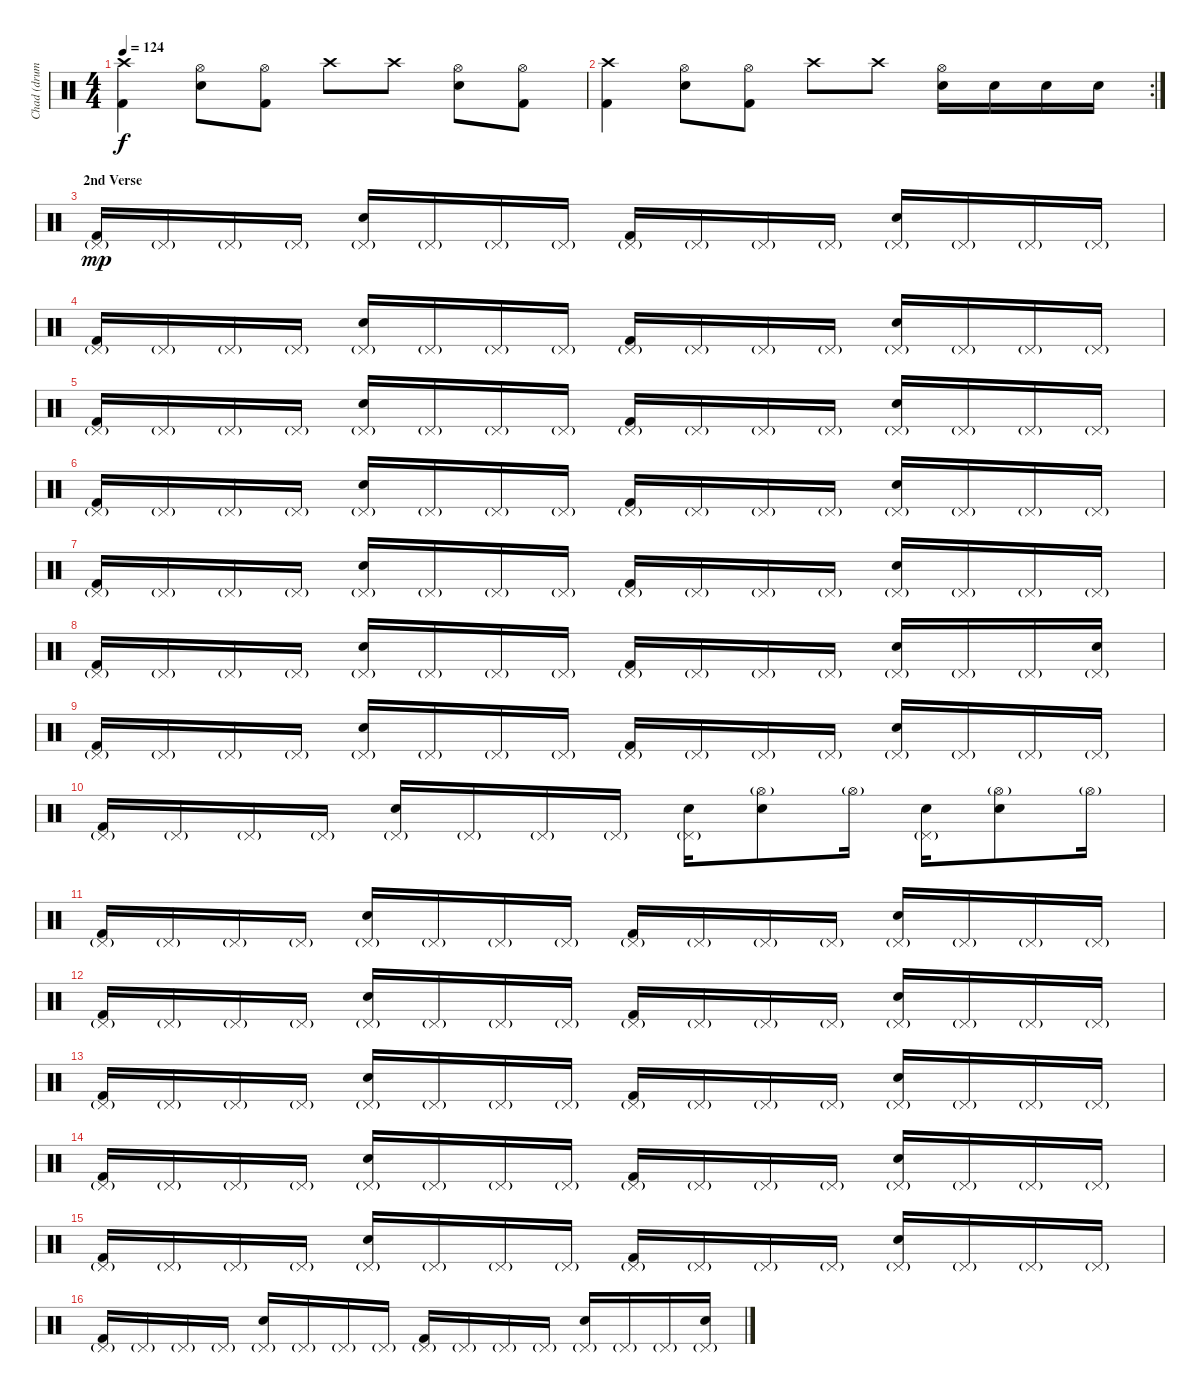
\track ("Chad (drums)" "Chad (drum") {instrument percussion}
\staff {score}
\articulation defaults
\ts (4 4)
\tempo 124
\clef neutral
\ks c
("Kick (hit) 2" "Crash high (hit)").4{dy f} ("Electric Snare (hit)" "Hi-Hat (open)").8 ("Kick (hit) 2" "Hi-Hat (open)").8 "Crash high (hit)".8 "Crash high (hit)".8 ("Electric Snare (hit)" "Hi-Hat (open)").8 ("Kick (hit) 2" "Hi-Hat (open)").8 |
\rc 2
("Kick (hit) 2" "Crash high (hit)").4 ("Electric Snare (hit)" "Hi-Hat (open)").8 ("Kick (hit) 2" "Hi-Hat (open)").8 "Crash high (hit)".8 "Crash high (hit)".8 ("Electric Snare (hit)" "Hi-Hat (open)").16 "Electric Snare (hit)".16 "Electric Snare (hit)".16 "Electric Snare (hit)".16 |
\section ("" "2nd Verse")
("Kick (hit) 2" "Pedal Hi-Hat (hit)"{g}).16{dy mp} "Pedal Hi-Hat (hit)"{g}.16 "Pedal Hi-Hat (hit)"{g}.16 "Pedal Hi-Hat (hit)"{g}.16 ("Electric Snare (hit)" "Pedal Hi-Hat (hit)"{g}).16 "Pedal Hi-Hat (hit)"{g}.16 "Pedal Hi-Hat (hit)"{g}.16 "Pedal Hi-Hat (hit)"{g}.16 ("Kick (hit) 2" "Pedal Hi-Hat (hit)"{g}).16 "Pedal Hi-Hat (hit)"{g}.16 "Pedal Hi-Hat (hit)"{g}.16 "Pedal Hi-Hat (hit)"{g}.16 ("Electric Snare (hit)" "Pedal Hi-Hat (hit)"{g}).16 "Pedal Hi-Hat (hit)"{g}.16 "Pedal Hi-Hat (hit)"{g}.16 "Pedal Hi-Hat (hit)"{g}.16 |
("Kick (hit) 2" "Pedal Hi-Hat (hit)"{g}).16 "Pedal Hi-Hat (hit)"{g}.16 "Pedal Hi-Hat (hit)"{g}.16 "Pedal Hi-Hat (hit)"{g}.16 ("Electric Snare (hit)" "Pedal Hi-Hat (hit)"{g}).16 "Pedal Hi-Hat (hit)"{g}.16 "Pedal Hi-Hat (hit)"{g}.16 "Pedal Hi-Hat (hit)"{g}.16 ("Kick (hit) 2" "Pedal Hi-Hat (hit)"{g}).16 "Pedal Hi-Hat (hit)"{g}.16 "Pedal Hi-Hat (hit)"{g}.16 "Pedal Hi-Hat (hit)"{g}.16 ("Electric Snare (hit)" "Pedal Hi-Hat (hit)"{g}).16 "Pedal Hi-Hat (hit)"{g}.16 "Pedal Hi-Hat (hit)"{g}.16 "Pedal Hi-Hat (hit)"{g}.16 |
("Kick (hit) 2" "Pedal Hi-Hat (hit)"{g}).16 "Pedal Hi-Hat (hit)"{g}.16 "Pedal Hi-Hat (hit)"{g}.16 "Pedal Hi-Hat (hit)"{g}.16 ("Electric Snare (hit)" "Pedal Hi-Hat (hit)"{g}).16 "Pedal Hi-Hat (hit)"{g}.16 "Pedal Hi-Hat (hit)"{g}.16 "Pedal Hi-Hat (hit)"{g}.16 ("Kick (hit) 2" "Pedal Hi-Hat (hit)"{g}).16 "Pedal Hi-Hat (hit)"{g}.16 "Pedal Hi-Hat (hit)"{g}.16 "Pedal Hi-Hat (hit)"{g}.16 ("Electric Snare (hit)" "Pedal Hi-Hat (hit)"{g}).16 "Pedal Hi-Hat (hit)"{g}.16 "Pedal Hi-Hat (hit)"{g}.16 "Pedal Hi-Hat (hit)"{g}.16 |
("Kick (hit) 2" "Pedal Hi-Hat (hit)"{g}).16 "Pedal Hi-Hat (hit)"{g}.16 "Pedal Hi-Hat (hit)"{g}.16 "Pedal Hi-Hat (hit)"{g}.16 ("Electric Snare (hit)" "Pedal Hi-Hat (hit)"{g}).16 "Pedal Hi-Hat (hit)"{g}.16 "Pedal Hi-Hat (hit)"{g}.16 "Pedal Hi-Hat (hit)"{g}.16 ("Kick (hit) 2" "Pedal Hi-Hat (hit)"{g}).16 "Pedal Hi-Hat (hit)"{g}.16 "Pedal Hi-Hat (hit)"{g}.16 "Pedal Hi-Hat (hit)"{g}.16 ("Electric Snare (hit)" "Pedal Hi-Hat (hit)"{g}).16 "Pedal Hi-Hat (hit)"{g}.16 "Pedal Hi-Hat (hit)"{g}.16 "Pedal Hi-Hat (hit)"{g}.16 |
("Kick (hit) 2" "Pedal Hi-Hat (hit)"{g}).16 "Pedal Hi-Hat (hit)"{g}.16 "Pedal Hi-Hat (hit)"{g}.16 "Pedal Hi-Hat (hit)"{g}.16 ("Electric Snare (hit)" "Pedal Hi-Hat (hit)"{g}).16 "Pedal Hi-Hat (hit)"{g}.16 "Pedal Hi-Hat (hit)"{g}.16 "Pedal Hi-Hat (hit)"{g}.16 ("Kick (hit) 2" "Pedal Hi-Hat (hit)"{g}).16 "Pedal Hi-Hat (hit)"{g}.16 "Pedal Hi-Hat (hit)"{g}.16 "Pedal Hi-Hat (hit)"{g}.16 ("Electric Snare (hit)" "Pedal Hi-Hat (hit)"{g}).16 "Pedal Hi-Hat (hit)"{g}.16 "Pedal Hi-Hat (hit)"{g}.16 "Pedal Hi-Hat (hit)"{g}.16 |
("Kick (hit) 2" "Pedal Hi-Hat (hit)"{g}).16 "Pedal Hi-Hat (hit)"{g}.16 "Pedal Hi-Hat (hit)"{g}.16 "Pedal Hi-Hat (hit)"{g}.16 ("Electric Snare (hit)" "Pedal Hi-Hat (hit)"{g}).16 "Pedal Hi-Hat (hit)"{g}.16 "Pedal Hi-Hat (hit)"{g}.16 "Pedal Hi-Hat (hit)"{g}.16 ("Kick (hit) 2" "Pedal Hi-Hat (hit)"{g}).16 "Pedal Hi-Hat (hit)"{g}.16 "Pedal Hi-Hat (hit)"{g}.16 "Pedal Hi-Hat (hit)"{g}.16 ("Electric Snare (hit)" "Pedal Hi-Hat (hit)"{g}).16 "Pedal Hi-Hat (hit)"{g}.16 "Pedal Hi-Hat (hit)"{g}.16 ("Electric Snare (hit)" "Pedal Hi-Hat (hit)"{g}).16 |
("Kick (hit) 2" "Pedal Hi-Hat (hit)"{g}).16 "Pedal Hi-Hat (hit)"{g}.16 "Pedal Hi-Hat (hit)"{g}.16 "Pedal Hi-Hat (hit)"{g}.16 ("Electric Snare (hit)" "Pedal Hi-Hat (hit)"{g}).16 "Pedal Hi-Hat (hit)"{g}.16 "Pedal Hi-Hat (hit)"{g}.16 "Pedal Hi-Hat (hit)"{g}.16 ("Kick (hit) 2" "Pedal Hi-Hat (hit)"{g}).16 "Pedal Hi-Hat (hit)"{g}.16 "Pedal Hi-Hat (hit)"{g}.16 "Pedal Hi-Hat (hit)"{g}.16 ("Electric Snare (hit)" "Pedal Hi-Hat (hit)"{g}).16 "Pedal Hi-Hat (hit)"{g}.16 "Pedal Hi-Hat (hit)"{g}.16 "Pedal Hi-Hat (hit)"{g}.16 |
("Kick (hit) 2" "Pedal Hi-Hat (hit)"{g}).16 "Pedal Hi-Hat (hit)"{g}.16 "Pedal Hi-Hat (hit)"{g}.16 "Pedal Hi-Hat (hit)"{g}.16 ("Electric Snare (hit)" "Pedal Hi-Hat (hit)"{g}).16 "Pedal Hi-Hat (hit)"{g}.16 "Pedal Hi-Hat (hit)"{g}.16 "Pedal Hi-Hat (hit)"{g}.16 ("Electric Snare (hit)" "Pedal Hi-Hat (hit)"{g}).16 ("Electric Snare (hit)" "Hi-Hat (open)"{g}).8 "Hi-Hat (open)"{g}.16 ("Electric Snare (hit)" "Pedal Hi-Hat (hit)"{g}).16 ("Electric Snare (hit)" "Hi-Hat (open)"{g}).8 "Hi-Hat (open)"{g}.16 |
("Kick (hit) 2" "Pedal Hi-Hat (hit)"{g}).16 "Pedal Hi-Hat (hit)"{g}.16 "Pedal Hi-Hat (hit)"{g}.16 "Pedal Hi-Hat (hit)"{g}.16 ("Electric Snare (hit)" "Pedal Hi-Hat (hit)"{g}).16 "Pedal Hi-Hat (hit)"{g}.16 "Pedal Hi-Hat (hit)"{g}.16 "Pedal Hi-Hat (hit)"{g}.16 ("Kick (hit) 2" "Pedal Hi-Hat (hit)"{g}).16 "Pedal Hi-Hat (hit)"{g}.16 "Pedal Hi-Hat (hit)"{g}.16 "Pedal Hi-Hat (hit)"{g}.16 ("Electric Snare (hit)" "Pedal Hi-Hat (hit)"{g}).16 "Pedal Hi-Hat (hit)"{g}.16 "Pedal Hi-Hat (hit)"{g}.16 "Pedal Hi-Hat (hit)"{g}.16 |
("Kick (hit) 2" "Pedal Hi-Hat (hit)"{g}).16 "Pedal Hi-Hat (hit)"{g}.16 "Pedal Hi-Hat (hit)"{g}.16 "Pedal Hi-Hat (hit)"{g}.16 ("Electric Snare (hit)" "Pedal Hi-Hat (hit)"{g}).16 "Pedal Hi-Hat (hit)"{g}.16 "Pedal Hi-Hat (hit)"{g}.16 "Pedal Hi-Hat (hit)"{g}.16 ("Kick (hit) 2" "Pedal Hi-Hat (hit)"{g}).16 "Pedal Hi-Hat (hit)"{g}.16 "Pedal Hi-Hat (hit)"{g}.16 "Pedal Hi-Hat (hit)"{g}.16 ("Electric Snare (hit)" "Pedal Hi-Hat (hit)"{g}).16 "Pedal Hi-Hat (hit)"{g}.16 "Pedal Hi-Hat (hit)"{g}.16 "Pedal Hi-Hat (hit)"{g}.16 |
("Kick (hit) 2" "Pedal Hi-Hat (hit)"{g}).16 "Pedal Hi-Hat (hit)"{g}.16 "Pedal Hi-Hat (hit)"{g}.16 "Pedal Hi-Hat (hit)"{g}.16 ("Electric Snare (hit)" "Pedal Hi-Hat (hit)"{g}).16 "Pedal Hi-Hat (hit)"{g}.16 "Pedal Hi-Hat (hit)"{g}.16 "Pedal Hi-Hat (hit)"{g}.16 ("Kick (hit) 2" "Pedal Hi-Hat (hit)"{g}).16 "Pedal Hi-Hat (hit)"{g}.16 "Pedal Hi-Hat (hit)"{g}.16 "Pedal Hi-Hat (hit)"{g}.16 ("Electric Snare (hit)" "Pedal Hi-Hat (hit)"{g}).16 "Pedal Hi-Hat (hit)"{g}.16 "Pedal Hi-Hat (hit)"{g}.16 "Pedal Hi-Hat (hit)"{g}.16 |
("Kick (hit) 2" "Pedal Hi-Hat (hit)"{g}).16 "Pedal Hi-Hat (hit)"{g}.16 "Pedal Hi-Hat (hit)"{g}.16 "Pedal Hi-Hat (hit)"{g}.16 ("Electric Snare (hit)" "Pedal Hi-Hat (hit)"{g}).16 "Pedal Hi-Hat (hit)"{g}.16 "Pedal Hi-Hat (hit)"{g}.16 "Pedal Hi-Hat (hit)"{g}.16 ("Kick (hit) 2" "Pedal Hi-Hat (hit)"{g}).16 "Pedal Hi-Hat (hit)"{g}.16 "Pedal Hi-Hat (hit)"{g}.16 "Pedal Hi-Hat (hit)"{g}.16 ("Electric Snare (hit)" "Pedal Hi-Hat (hit)"{g}).16 "Pedal Hi-Hat (hit)"{g}.16 "Pedal Hi-Hat (hit)"{g}.16 "Pedal Hi-Hat (hit)"{g}.16 |
("Kick (hit) 2" "Pedal Hi-Hat (hit)"{g}).16 "Pedal Hi-Hat (hit)"{g}.16 "Pedal Hi-Hat (hit)"{g}.16 "Pedal Hi-Hat (hit)"{g}.16 ("Electric Snare (hit)" "Pedal Hi-Hat (hit)"{g}).16 "Pedal Hi-Hat (hit)"{g}.16 "Pedal Hi-Hat (hit)"{g}.16 "Pedal Hi-Hat (hit)"{g}.16 ("Kick (hit) 2" "Pedal Hi-Hat (hit)"{g}).16 "Pedal Hi-Hat (hit)"{g}.16 "Pedal Hi-Hat (hit)"{g}.16 "Pedal Hi-Hat (hit)"{g}.16 ("Electric Snare (hit)" "Pedal Hi-Hat (hit)"{g}).16 "Pedal Hi-Hat (hit)"{g}.16 "Pedal Hi-Hat (hit)"{g}.16 "Pedal Hi-Hat (hit)"{g}.16 |
("Kick (hit) 2" "Pedal Hi-Hat (hit)"{g}).16 "Pedal Hi-Hat (hit)"{g}.16 "Pedal Hi-Hat (hit)"{g}.16 "Pedal Hi-Hat (hit)"{g}.16 ("Electric Snare (hit)" "Pedal Hi-Hat (hit)"{g}).16 "Pedal Hi-Hat (hit)"{g}.16 "Pedal Hi-Hat (hit)"{g}.16 "Pedal Hi-Hat (hit)"{g}.16 ("Kick (hit) 2" "Pedal Hi-Hat (hit)"{g}).16 "Pedal Hi-Hat (hit)"{g}.16 "Pedal Hi-Hat (hit)"{g}.16 "Pedal Hi-Hat (hit)"{g}.16 ("Electric Snare (hit)" "Pedal Hi-Hat (hit)"{g}).16 "Pedal Hi-Hat (hit)"{g}.16 "Pedal Hi-Hat (hit)"{g}.16 ("Electric Snare (hit)" "Pedal Hi-Hat (hit)"{g}).16
